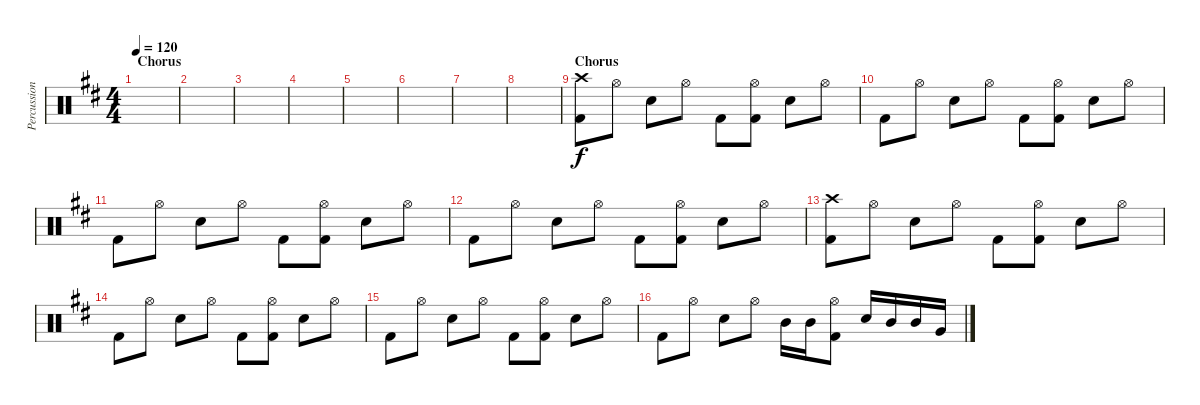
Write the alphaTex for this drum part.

\track ("Percussion" "Percussion") {instrument percussion}
\staff {score}
\articulation defaults
\ts (4 4)
\section ("" "Chorus")
\tempo 120
\clef neutral
\ks d
|
|
|
|
|
|
|
|
\section ("" "Chorus")
("Crash high (hit)" "Kick (hit) 2").8{dy f} "Hi-Hat (open)".8 "Snare (hit) 2".8 "Hi-Hat (open)".8 "Kick (hit) 2".8 ("Hi-Hat (open)" "Kick (hit) 2").8 "Snare (hit) 2".8 "Hi-Hat (open)".8 |
"Kick (hit) 2".8 "Hi-Hat (open)".8 "Snare (hit) 2".8 "Hi-Hat (open)".8 "Kick (hit) 2".8 ("Hi-Hat (open)" "Kick (hit) 2").8 "Snare (hit) 2".8 "Hi-Hat (open)".8 |
"Kick (hit) 2".8 "Hi-Hat (open)".8 "Snare (hit) 2".8 "Hi-Hat (open)".8 "Kick (hit) 2".8 ("Hi-Hat (open)" "Kick (hit) 2").8 "Snare (hit) 2".8 "Hi-Hat (open)".8 |
"Kick (hit) 2".8 "Hi-Hat (open)".8 "Snare (hit) 2".8 "Hi-Hat (open)".8 "Kick (hit) 2".8 ("Hi-Hat (open)" "Kick (hit) 2").8 "Snare (hit) 2".8 "Hi-Hat (open)".8 |
("Crash high (hit)" "Kick (hit) 2").8 "Hi-Hat (open)".8 "Snare (hit) 2".8 "Hi-Hat (open)".8 "Kick (hit) 2".8 ("Hi-Hat (open)" "Kick (hit) 2").8 "Snare (hit) 2".8 "Hi-Hat (open)".8 |
"Kick (hit) 2".8 "Hi-Hat (open)".8 "Snare (hit) 2".8 "Hi-Hat (open)".8 "Kick (hit) 2".8 ("Hi-Hat (open)" "Kick (hit) 2").8 "Snare (hit) 2".8 "Hi-Hat (open)".8 |
"Kick (hit) 2".8 "Hi-Hat (open)".8 "Snare (hit) 2".8 "Hi-Hat (open)".8 "Kick (hit) 2".8 ("Hi-Hat (open)" "Kick (hit) 2").8 "Snare (hit) 2".8 "Hi-Hat (open)".8 |
"Kick (hit) 2".8 "Hi-Hat (open)".8 "Snare (hit) 2".8 "Hi-Hat (open)".8 "Mid Tom (hit)".16 "Mid Tom (hit)".16 ("Hi-Hat (open)" "Kick (hit) 2").8 "Snare (hit) 2".16 "Mid Tom (hit)".16 "Mid Tom (hit)".16 "Very Low Tom (hit)".16
